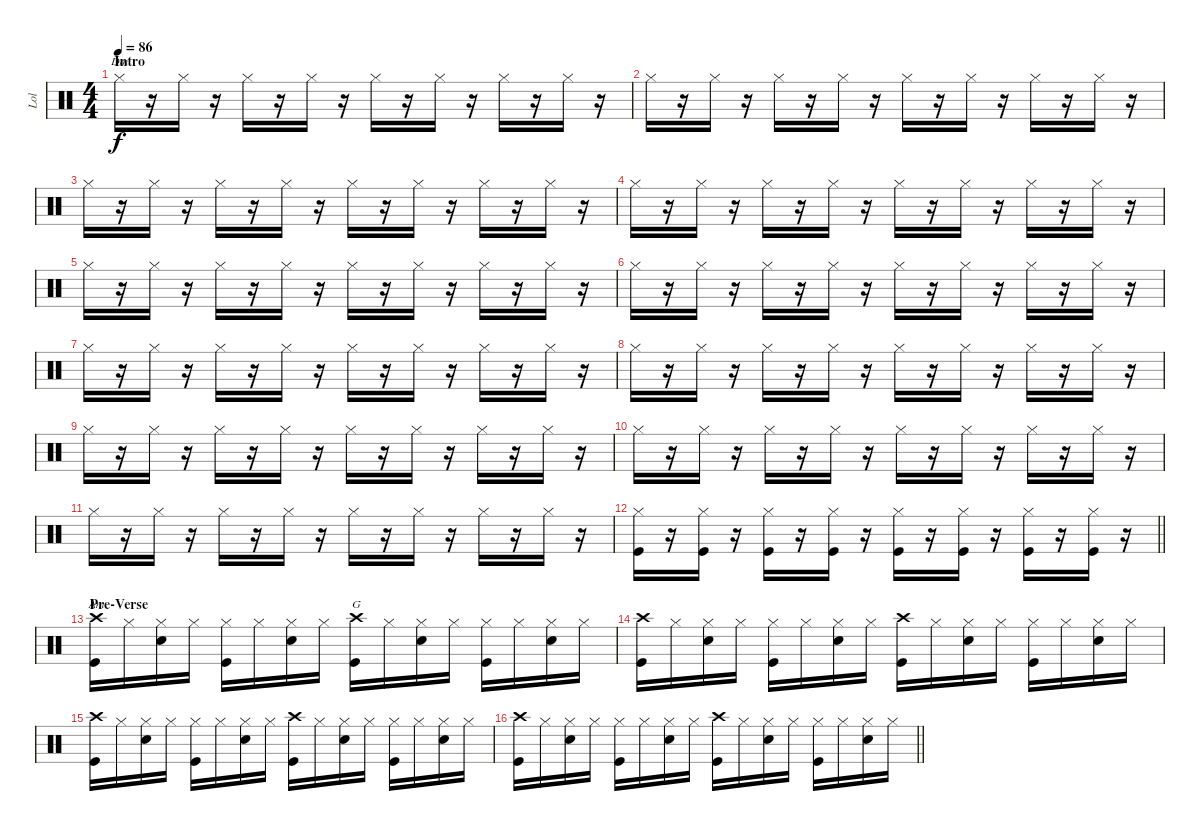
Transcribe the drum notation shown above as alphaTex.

\track ("Lol" "Lol") {instrument percussion}
\staff {score}
\articulation defaults
\chord ("Dm")
\chord ("Am")
\chord ("G")
\ts (4 4)
\section ("" "Intro")
\tempo 86
\clef neutral
\ks c "Hi-Hat (closed)".16{ch "Dm" dy f}
r.16 "Hi-Hat (closed)".16 r.16 "Hi-Hat (closed)".16 r.16 "Hi-Hat (closed)".16 r.16 "Hi-Hat (closed)".16 r.16 "Hi-Hat (closed)".16 r.16 "Hi-Hat (closed)".16 r.16 "Hi-Hat (closed)".16 r.16 |
"Hi-Hat (closed)".16 r.16 "Hi-Hat (closed)".16 r.16 "Hi-Hat (closed)".16 r.16 "Hi-Hat (closed)".16 r.16 "Hi-Hat (closed)".16 r.16 "Hi-Hat (closed)".16 r.16 "Hi-Hat (closed)".16 r.16 "Hi-Hat (closed)".16 r.16 |
"Hi-Hat (closed)".16 r.16 "Hi-Hat (closed)".16 r.16 "Hi-Hat (closed)".16 r.16 "Hi-Hat (closed)".16 r.16 "Hi-Hat (closed)".16 r.16 "Hi-Hat (closed)".16 r.16 "Hi-Hat (closed)".16 r.16 "Hi-Hat (closed)".16 r.16 |
"Hi-Hat (closed)".16 r.16 "Hi-Hat (closed)".16 r.16 "Hi-Hat (closed)".16 r.16 "Hi-Hat (closed)".16 r.16 "Hi-Hat (closed)".16 r.16 "Hi-Hat (closed)".16 r.16 "Hi-Hat (closed)".16 r.16 "Hi-Hat (closed)".16 r.16 |
"Hi-Hat (closed)".16 r.16 "Hi-Hat (closed)".16 r.16 "Hi-Hat (closed)".16 r.16 "Hi-Hat (closed)".16 r.16 "Hi-Hat (closed)".16 r.16 "Hi-Hat (closed)".16 r.16 "Hi-Hat (closed)".16 r.16 "Hi-Hat (closed)".16 r.16 |
"Hi-Hat (closed)".16 r.16 "Hi-Hat (closed)".16 r.16 "Hi-Hat (closed)".16 r.16 "Hi-Hat (closed)".16 r.16 "Hi-Hat (closed)".16 r.16 "Hi-Hat (closed)".16 r.16 "Hi-Hat (closed)".16 r.16 "Hi-Hat (closed)".16 r.16 |
"Hi-Hat (closed)".16 r.16 "Hi-Hat (closed)".16 r.16 "Hi-Hat (closed)".16 r.16 "Hi-Hat (closed)".16 r.16 "Hi-Hat (closed)".16 r.16 "Hi-Hat (closed)".16 r.16 "Hi-Hat (closed)".16 r.16 "Hi-Hat (closed)".16 r.16 |
"Hi-Hat (closed)".16 r.16 "Hi-Hat (closed)".16 r.16 "Hi-Hat (closed)".16 r.16 "Hi-Hat (closed)".16 r.16 "Hi-Hat (closed)".16 r.16 "Hi-Hat (closed)".16 r.16 "Hi-Hat (closed)".16 r.16 "Hi-Hat (closed)".16 r.16 |
"Hi-Hat (closed)".16 r.16 "Hi-Hat (closed)".16 r.16 "Hi-Hat (closed)".16 r.16 "Hi-Hat (closed)".16 r.16 "Hi-Hat (closed)".16 r.16 "Hi-Hat (closed)".16 r.16 "Hi-Hat (closed)".16 r.16 "Hi-Hat (closed)".16 r.16 |
"Hi-Hat (closed)".16 r.16 "Hi-Hat (closed)".16 r.16 "Hi-Hat (closed)".16 r.16 "Hi-Hat (closed)".16 r.16 "Hi-Hat (closed)".16 r.16 "Hi-Hat (closed)".16 r.16 "Hi-Hat (closed)".16 r.16 "Hi-Hat (closed)".16 r.16 |
"Hi-Hat (closed)".16 r.16 "Hi-Hat (closed)".16 r.16 "Hi-Hat (closed)".16 r.16 "Hi-Hat (closed)".16 r.16 "Hi-Hat (closed)".16 r.16 "Hi-Hat (closed)".16 r.16 "Hi-Hat (closed)".16 r.16 "Hi-Hat (closed)".16 r.16 |
\barLineRight lightlight
("Hi-Hat (closed)" "Kick (hit)").16{volume 14} r.16 ("Hi-Hat (closed)" "Kick (hit)").16 r.16 ("Hi-Hat (closed)" "Kick (hit)").16 r.16 ("Hi-Hat (closed)" "Kick (hit)").16 r.16 ("Hi-Hat (closed)" "Kick (hit)").16 r.16 ("Hi-Hat (closed)" "Kick (hit)").16 r.16 ("Hi-Hat (closed)" "Kick (hit)").16 r.16 ("Hi-Hat (closed)" "Kick (hit)").16 r.16 |
\section ("" "Pre-Verse")
("Crash high (hit)" "Kick (hit)").16{ch "Am"} "Hi-Hat (closed)".16 ("Hi-Hat (closed)" "Snare (hit) 2").16 "Hi-Hat (closed)".16 ("Hi-Hat (closed)" "Kick (hit)").16 "Hi-Hat (closed)".16 ("Hi-Hat (closed)" "Snare (hit) 2").16 "Hi-Hat (closed)".16 ("Crash high (hit)" "Kick (hit)").16{ch "G"} "Hi-Hat (closed)".16 ("Hi-Hat (closed)" "Snare (hit) 2").16 "Hi-Hat (closed)".16 ("Hi-Hat (closed)" "Kick (hit)").16 "Hi-Hat (closed)".16 ("Hi-Hat (closed)" "Snare (hit) 2").16 "Hi-Hat (closed)".16 |
("Crash high (hit)" "Kick (hit)").16 "Hi-Hat (closed)".16 ("Hi-Hat (closed)" "Snare (hit) 2").16 "Hi-Hat (closed)".16 ("Hi-Hat (closed)" "Kick (hit)").16 "Hi-Hat (closed)".16 ("Hi-Hat (closed)" "Snare (hit) 2").16 "Hi-Hat (closed)".16 ("Crash high (hit)" "Kick (hit)").16 "Hi-Hat (closed)".16 ("Hi-Hat (closed)" "Snare (hit) 2").16 "Hi-Hat (closed)".16 ("Hi-Hat (closed)" "Kick (hit)").16 "Hi-Hat (closed)".16 ("Hi-Hat (closed)" "Snare (hit) 2").16 "Hi-Hat (closed)".16 |
("Crash high (hit)" "Kick (hit)").16 "Hi-Hat (closed)".16 ("Hi-Hat (closed)" "Snare (hit) 2").16 "Hi-Hat (closed)".16 ("Hi-Hat (closed)" "Kick (hit)").16 "Hi-Hat (closed)".16 ("Hi-Hat (closed)" "Snare (hit) 2").16 "Hi-Hat (closed)".16 ("Crash high (hit)" "Kick (hit)").16 "Hi-Hat (closed)".16 ("Hi-Hat (closed)" "Snare (hit) 2").16 "Hi-Hat (closed)".16 ("Hi-Hat (closed)" "Kick (hit)").16 "Hi-Hat (closed)".16 ("Hi-Hat (closed)" "Snare (hit) 2").16 "Hi-Hat (closed)".16 |
\barLineRight lightlight
("Crash high (hit)" "Kick (hit)").16 "Hi-Hat (closed)".16 ("Hi-Hat (closed)" "Snare (hit) 2").16 "Hi-Hat (closed)".16 ("Hi-Hat (closed)" "Kick (hit)").16 "Hi-Hat (closed)".16 ("Hi-Hat (closed)" "Snare (hit) 2").16 "Hi-Hat (closed)".16 ("Crash high (hit)" "Kick (hit)").16 "Hi-Hat (closed)".16 ("Hi-Hat (closed)" "Snare (hit) 2").16 "Hi-Hat (closed)".16 ("Hi-Hat (closed)" "Kick (hit)").16 "Hi-Hat (closed)".16 ("Hi-Hat (closed)" "Snare (hit) 2").16 "Hi-Hat (closed)".16
